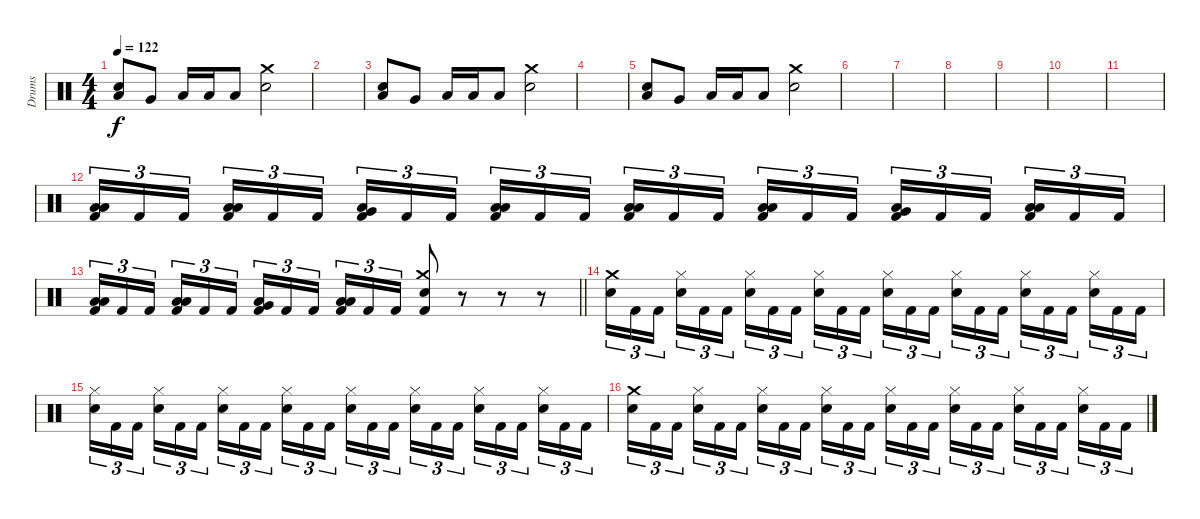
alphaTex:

\track ("Drums" "Drums") {instrument percussion}
\staff {score}
\articulation defaults
\ts (4 4)
\tempo 122
\clef neutral
\ks c
("Low Tom (hit)" "Electric Snare (hit)").8{dy f} "Very Low Tom (hit)".8 "Low Tom (hit)".16 "Low Tom (hit)".16 "Low Tom (hit)".8 ("Crash medium (hit)" "Electric Snare (hit)").2 |
|
("Low Tom (hit)" "Electric Snare (hit)").8 "Very Low Tom (hit)".8 "Low Tom (hit)".16 "Low Tom (hit)".16 "Low Tom (hit)".8 ("Crash medium (hit)" "Electric Snare (hit)").2 |
|
("Low Tom (hit)" "Electric Snare (hit)").8 "Very Low Tom (hit)".8 "Low Tom (hit)".16 "Low Tom (hit)".16 "Low Tom (hit)".8 ("Crash medium (hit)" "Electric Snare (hit)").2 |
|
|
|
|
|
|
("Low Tom (hit)" "Low Floor Tom (hit)" "Kick (hit) 2").16{tu (3 2)} "Kick (hit) 2".16{tu (3 2)} "Kick (hit) 2".16{tu (3 2)} ("Low Tom (hit)" "Low Floor Tom (hit)" "Kick (hit) 2").16{tu (3 2)} "Kick (hit) 2".16{tu (3 2)} "Kick (hit) 2".16{tu (3 2)} ("Very Low Tom (hit)" "Low Floor Tom (hit)" "Kick (hit) 2").16{tu (3 2)} "Kick (hit) 2".16{tu (3 2)} "Kick (hit) 2".16{tu (3 2)} ("Low Floor Tom (hit)" "Low Floor Tom (hit)" "Kick (hit) 2").16{tu (3 2)} "Kick (hit) 2".16{tu (3 2)} "Kick (hit) 2".16{tu (3 2)} ("Low Tom (hit)" "Low Floor Tom (hit)" "Kick (hit) 2").16{tu (3 2)} "Kick (hit) 2".16{tu (3 2)} "Kick (hit) 2".16{tu (3 2)} ("Low Tom (hit)" "Low Floor Tom (hit)" "Kick (hit) 2").16{tu (3 2)} "Kick (hit) 2".16{tu (3 2)} "Kick (hit) 2".16{tu (3 2)} ("Very Low Tom (hit)" "Low Floor Tom (hit)" "Kick (hit) 2").16{tu (3 2)} "Kick (hit) 2".16{tu (3 2)} "Kick (hit) 2".16{tu (3 2)} ("Low Floor Tom (hit)" "Low Floor Tom (hit)" "Kick (hit) 2").16{tu (3 2)} "Kick (hit) 2".16{tu (3 2)} "Kick (hit) 2".16{tu (3 2)} |
\barLineRight lightlight
("Low Tom (hit)" "Low Floor Tom (hit)" "Kick (hit) 2").16{tu (3 2)} "Kick (hit) 2".16{tu (3 2)} "Kick (hit) 2".16{tu (3 2)} ("Low Tom (hit)" "Low Floor Tom (hit)" "Kick (hit) 2").16{tu (3 2)} "Kick (hit) 2".16{tu (3 2)} "Kick (hit) 2".16{tu (3 2)} ("Very Low Tom (hit)" "Low Floor Tom (hit)" "Kick (hit) 2").16{tu (3 2)} "Kick (hit) 2".16{tu (3 2)} "Kick (hit) 2".16{tu (3 2)} ("Low Floor Tom (hit)" "Low Floor Tom (hit)" "Kick (hit) 2").16{tu (3 2)} "Kick (hit) 2".16{tu (3 2)} "Kick (hit) 2".16{tu (3 2)} ("Crash medium (hit)" "Electric Snare (hit)" "Kick (hit) 2").8 r.8{volume 0} r.8 r.8 |
\section ("" "")
("Crash medium (hit)" "Electric Snare (hit)").16{tu (3 2) volume 16} "Kick (hit) 2".16{tu (3 2)} "Kick (hit) 2".16{tu (3 2)} ("Hi-Hat (closed)" "Electric Snare (hit)").16{tu (3 2)} "Kick (hit) 2".16{tu (3 2)} "Kick (hit) 2".16{tu (3 2)} ("Hi-Hat (closed)" "Electric Snare (hit)").16{tu (3 2)} "Kick (hit) 2".16{tu (3 2)} "Kick (hit) 2".16{tu (3 2)} ("Hi-Hat (closed)" "Electric Snare (hit)").16{tu (3 2)} "Kick (hit) 2".16{tu (3 2)} "Kick (hit) 2".16{tu (3 2)} ("Hi-Hat (closed)" "Electric Snare (hit)").16{tu (3 2)} "Kick (hit) 2".16{tu (3 2)} "Kick (hit) 2".16{tu (3 2)} ("Hi-Hat (closed)" "Electric Snare (hit)").16{tu (3 2)} "Kick (hit) 2".16{tu (3 2)} "Kick (hit) 2".16{tu (3 2)} ("Hi-Hat (closed)" "Electric Snare (hit)").16{tu (3 2)} "Kick (hit) 2".16{tu (3 2)} "Kick (hit) 2".16{tu (3 2)} ("Hi-Hat (closed)" "Electric Snare (hit)").16{tu (3 2)} "Kick (hit) 2".16{tu (3 2)} "Kick (hit) 2".16{tu (3 2)} |
("Hi-Hat (closed)" "Electric Snare (hit)").16{tu (3 2)} "Kick (hit) 2".16{tu (3 2)} "Kick (hit) 2".16{tu (3 2)} ("Hi-Hat (closed)" "Electric Snare (hit)").16{tu (3 2)} "Kick (hit) 2".16{tu (3 2)} "Kick (hit) 2".16{tu (3 2)} ("Hi-Hat (closed)" "Electric Snare (hit)").16{tu (3 2)} "Kick (hit) 2".16{tu (3 2)} "Kick (hit) 2".16{tu (3 2)} ("Hi-Hat (closed)" "Electric Snare (hit)").16{tu (3 2)} "Kick (hit) 2".16{tu (3 2)} "Kick (hit) 2".16{tu (3 2)} ("Hi-Hat (closed)" "Electric Snare (hit)").16{tu (3 2)} "Kick (hit) 2".16{tu (3 2)} "Kick (hit) 2".16{tu (3 2)} ("Hi-Hat (closed)" "Electric Snare (hit)").16{tu (3 2)} "Kick (hit) 2".16{tu (3 2)} "Kick (hit) 2".16{tu (3 2)} ("Hi-Hat (closed)" "Electric Snare (hit)").16{tu (3 2)} "Kick (hit) 2".16{tu (3 2)} "Kick (hit) 2".16{tu (3 2)} ("Hi-Hat (closed)" "Electric Snare (hit)").16{tu (3 2)} "Kick (hit) 2".16{tu (3 2)} "Kick (hit) 2".16{tu (3 2)} |
("Crash medium (hit)" "Electric Snare (hit)").16{tu (3 2)} "Kick (hit) 2".16{tu (3 2)} "Kick (hit) 2".16{tu (3 2)} ("Hi-Hat (closed)" "Electric Snare (hit)").16{tu (3 2)} "Kick (hit) 2".16{tu (3 2)} "Kick (hit) 2".16{tu (3 2)} ("Hi-Hat (closed)" "Electric Snare (hit)").16{tu (3 2)} "Kick (hit) 2".16{tu (3 2)} "Kick (hit) 2".16{tu (3 2)} ("Hi-Hat (closed)" "Electric Snare (hit)").16{tu (3 2)} "Kick (hit) 2".16{tu (3 2)} "Kick (hit) 2".16{tu (3 2)} ("Hi-Hat (closed)" "Electric Snare (hit)").16{tu (3 2)} "Kick (hit) 2".16{tu (3 2)} "Kick (hit) 2".16{tu (3 2)} ("Hi-Hat (closed)" "Electric Snare (hit)").16{tu (3 2)} "Kick (hit) 2".16{tu (3 2)} "Kick (hit) 2".16{tu (3 2)} ("Hi-Hat (closed)" "Electric Snare (hit)").16{tu (3 2)} "Kick (hit) 2".16{tu (3 2)} "Kick (hit) 2".16{tu (3 2)} ("Hi-Hat (closed)" "Electric Snare (hit)").16{tu (3 2)} "Kick (hit) 2".16{tu (3 2)} "Kick (hit) 2".16{tu (3 2)}
